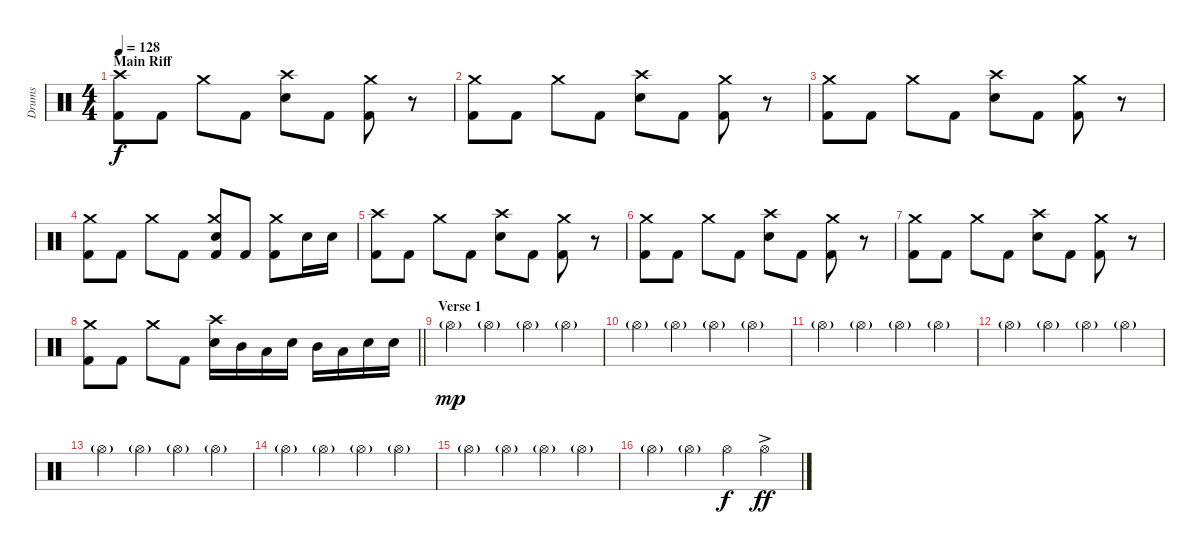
\track ("Drums" "Drums") {instrument percussion}
\staff {score}
\articulation defaults
\ts (4 4)
\section ("" "Main Riff")
\tempo 128
\clef neutral
\ks c
("Crash high (hit)" "Kick (hit) 2").8{dy f} "Kick (hit) 2".8 "Crash medium (hit)".8 "Kick (hit) 2".8 ("Crash high (hit)" "Electric Snare (hit)").8 "Kick (hit) 2".8 ("Crash medium (hit)" "Kick (hit) 2").8 r.8 |
("Crash medium (hit)" "Kick (hit) 2").8 "Kick (hit) 2".8 "Crash medium (hit)".8 "Kick (hit) 2".8 ("Crash high (hit)" "Electric Snare (hit)").8 "Kick (hit) 2".8 ("Crash medium (hit)" "Kick (hit) 2").8 r.8 |
("Crash medium (hit)" "Kick (hit) 2").8 "Kick (hit) 2".8 "Crash medium (hit)".8 "Kick (hit) 2".8 ("Crash high (hit)" "Electric Snare (hit)").8 "Kick (hit) 2".8 ("Crash medium (hit)" "Kick (hit) 2").8 r.8 |
("Crash medium (hit)" "Kick (hit) 2").8 "Kick (hit) 2".8 "Crash medium (hit)".8 "Kick (hit) 2".8 ("Crash medium (hit)" "Electric Snare (hit)" "Kick (hit) 2").8 "Kick (hit) 2".8 ("Crash medium (hit)" "Kick (hit) 2").8 "Electric Snare (hit)".16 "Electric Snare (hit)".16 |
("Crash high (hit)" "Kick (hit) 2").8 "Kick (hit) 2".8 "Crash medium (hit)".8 "Kick (hit) 2".8 ("Crash high (hit)" "Electric Snare (hit)").8 "Kick (hit) 2".8 ("Crash medium (hit)" "Kick (hit) 2").8 r.8 |
("Crash medium (hit)" "Kick (hit) 2").8 "Kick (hit) 2".8 "Crash medium (hit)".8 "Kick (hit) 2".8 ("Crash high (hit)" "Electric Snare (hit)").8 "Kick (hit) 2".8 ("Crash medium (hit)" "Kick (hit) 2").8 r.8 |
("Crash medium (hit)" "Kick (hit) 2").8 "Kick (hit) 2".8 "Crash medium (hit)".8 "Kick (hit) 2".8 ("Crash high (hit)" "Electric Snare (hit)").8 "Kick (hit) 2".8 ("Crash medium (hit)" "Kick (hit) 2").8 r.8 |
\barLineRight lightlight
("Crash medium (hit)" "Kick (hit) 2").8 "Kick (hit) 2".8 "Crash medium (hit)".8 "Kick (hit) 2".8 ("Crash high (hit)" "Electric Snare (hit)").16 "Mid Tom (hit)".16 "Low Tom (hit)".16 "Electric Snare (hit)".16 "Mid Tom (hit)".16 "Low Tom (hit)".16 "Electric Snare (hit)".16 "Electric Snare (hit)".16 |
\section ("" "Verse 1")
"Hi-Hat (open)"{g}.4{dy mp} "Hi-Hat (open)"{g}.4 "Hi-Hat (open)"{g}.4 "Hi-Hat (open)"{g}.4 |
"Hi-Hat (open)"{g}.4 "Hi-Hat (open)"{g}.4 "Hi-Hat (open)"{g}.4 "Hi-Hat (open)"{g}.4 |
"Hi-Hat (open)"{g}.4 "Hi-Hat (open)"{g}.4 "Hi-Hat (open)"{g}.4 "Hi-Hat (open)"{g}.4 |
"Hi-Hat (open)"{g}.4 "Hi-Hat (open)"{g}.4 "Hi-Hat (open)"{g}.4 "Hi-Hat (open)"{g}.4 |
"Hi-Hat (open)"{g}.4 "Hi-Hat (open)"{g}.4 "Hi-Hat (open)"{g}.4 "Hi-Hat (open)"{g}.4 |
"Hi-Hat (open)"{g}.4 "Hi-Hat (open)"{g}.4 "Hi-Hat (open)"{g}.4 "Hi-Hat (open)"{g}.4 |
"Hi-Hat (open)"{g}.4 "Hi-Hat (open)"{g}.4 "Hi-Hat (open)"{g}.4 "Hi-Hat (open)"{g}.4 |
"Hi-Hat (open)"{g}.4 "Hi-Hat (open)"{g}.4 "Hi-Hat (open)".4{dy f} "Hi-Hat (open)"{ac}.4{dy ff}
